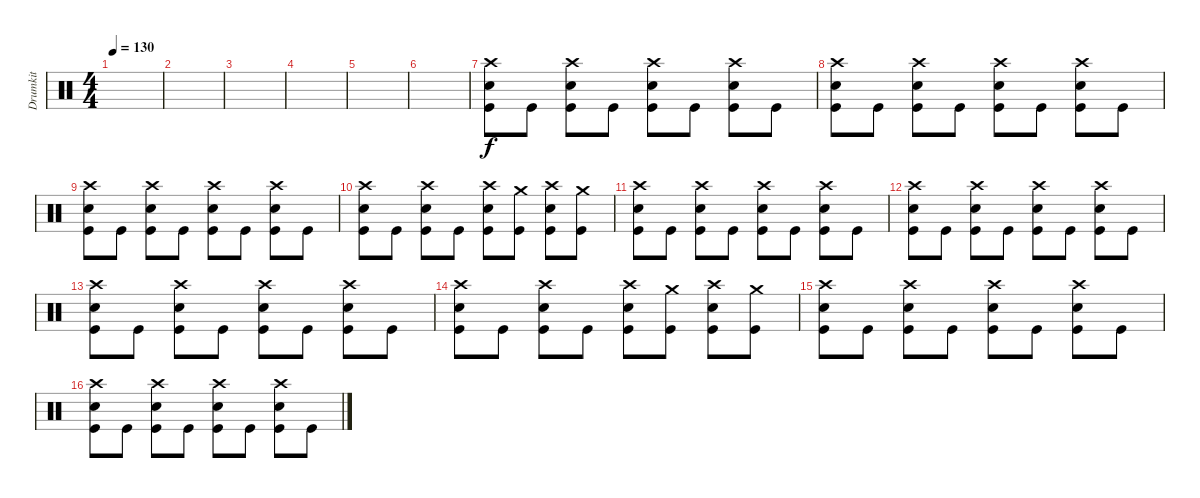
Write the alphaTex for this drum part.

\track ("Drumkit" "Drumkit") {instrument percussion}
\staff {score}
\articulation defaults
\ts (4 4)
\tempo 130
\clef neutral
\ks c
|
|
|
|
|
|
("Kick (hit)" "Snare (hit) 2" "Crash high (hit)").8 "Kick (hit)".8 ("Kick (hit)" "Snare (hit) 2" "Crash high (hit)").8 "Kick (hit)".8 ("Kick (hit)" "Snare (hit) 2" "Crash high (hit)").8 "Kick (hit)".8 ("Kick (hit)" "Snare (hit) 2" "Crash high (hit)").8 "Kick (hit)".8 |
("Kick (hit)" "Snare (hit) 2" "Crash high (hit)").8 "Kick (hit)".8 ("Kick (hit)" "Snare (hit) 2" "Crash high (hit)").8 "Kick (hit)".8 ("Kick (hit)" "Snare (hit) 2" "Crash high (hit)").8 "Kick (hit)".8 ("Kick (hit)" "Snare (hit) 2" "Crash high (hit)").8 "Kick (hit)".8 |
("Kick (hit)" "Snare (hit) 2" "Crash high (hit)").8 "Kick (hit)".8 ("Kick (hit)" "Snare (hit) 2" "Crash high (hit)").8 "Kick (hit)".8 ("Kick (hit)" "Snare (hit) 2" "Crash high (hit)").8 "Kick (hit)".8 ("Kick (hit)" "Snare (hit) 2" "Crash high (hit)").8 "Kick (hit)".8 |
("Kick (hit)" "Snare (hit) 2" "Crash high (hit)").8 "Kick (hit)".8 ("Kick (hit)" "Snare (hit) 2" "Crash high (hit)").8 "Kick (hit)".8 ("Kick (hit)" "Snare (hit) 2" "Crash high (hit)").8 ("Kick (hit)" "Crash medium (hit)").8 ("Kick (hit)" "Snare (hit) 2" "Crash high (hit)").8 ("Kick (hit)" "Crash medium (hit)").8 |
("Kick (hit)" "Snare (hit) 2" "Crash high (hit)").8 "Kick (hit)".8 ("Kick (hit)" "Snare (hit) 2" "Crash high (hit)").8 "Kick (hit)".8 ("Kick (hit)" "Snare (hit) 2" "Crash high (hit)").8 "Kick (hit)".8 ("Kick (hit)" "Snare (hit) 2" "Crash high (hit)").8 "Kick (hit)".8 |
("Kick (hit)" "Snare (hit) 2" "Crash high (hit)").8 "Kick (hit)".8 ("Kick (hit)" "Snare (hit) 2" "Crash high (hit)").8 "Kick (hit)".8 ("Kick (hit)" "Snare (hit) 2" "Crash high (hit)").8 "Kick (hit)".8 ("Kick (hit)" "Snare (hit) 2" "Crash high (hit)").8 "Kick (hit)".8 |
("Kick (hit)" "Snare (hit) 2" "Crash high (hit)").8 "Kick (hit)".8 ("Kick (hit)" "Snare (hit) 2" "Crash high (hit)").8 "Kick (hit)".8 ("Kick (hit)" "Snare (hit) 2" "Crash high (hit)").8 "Kick (hit)".8 ("Kick (hit)" "Snare (hit) 2" "Crash high (hit)").8 "Kick (hit)".8 |
("Kick (hit)" "Snare (hit) 2" "Crash high (hit)").8 "Kick (hit)".8 ("Kick (hit)" "Snare (hit) 2" "Crash high (hit)").8 "Kick (hit)".8 ("Kick (hit)" "Snare (hit) 2" "Crash high (hit)").8 ("Kick (hit)" "Crash medium (hit)").8 ("Kick (hit)" "Snare (hit) 2" "Crash high (hit)").8 ("Kick (hit)" "Crash medium (hit)").8 |
("Kick (hit)" "Snare (hit) 2" "Crash high (hit)").8 "Kick (hit)".8 ("Kick (hit)" "Snare (hit) 2" "Crash high (hit)").8 "Kick (hit)".8 ("Kick (hit)" "Snare (hit) 2" "Crash high (hit)").8 "Kick (hit)".8 ("Kick (hit)" "Snare (hit) 2" "Crash high (hit)").8 "Kick (hit)".8 |
("Kick (hit)" "Snare (hit) 2" "Crash high (hit)").8 "Kick (hit)".8 ("Kick (hit)" "Snare (hit) 2" "Crash high (hit)").8 "Kick (hit)".8 ("Kick (hit)" "Snare (hit) 2" "Crash high (hit)").8 "Kick (hit)".8 ("Kick (hit)" "Snare (hit) 2" "Crash high (hit)").8 "Kick (hit)".8
